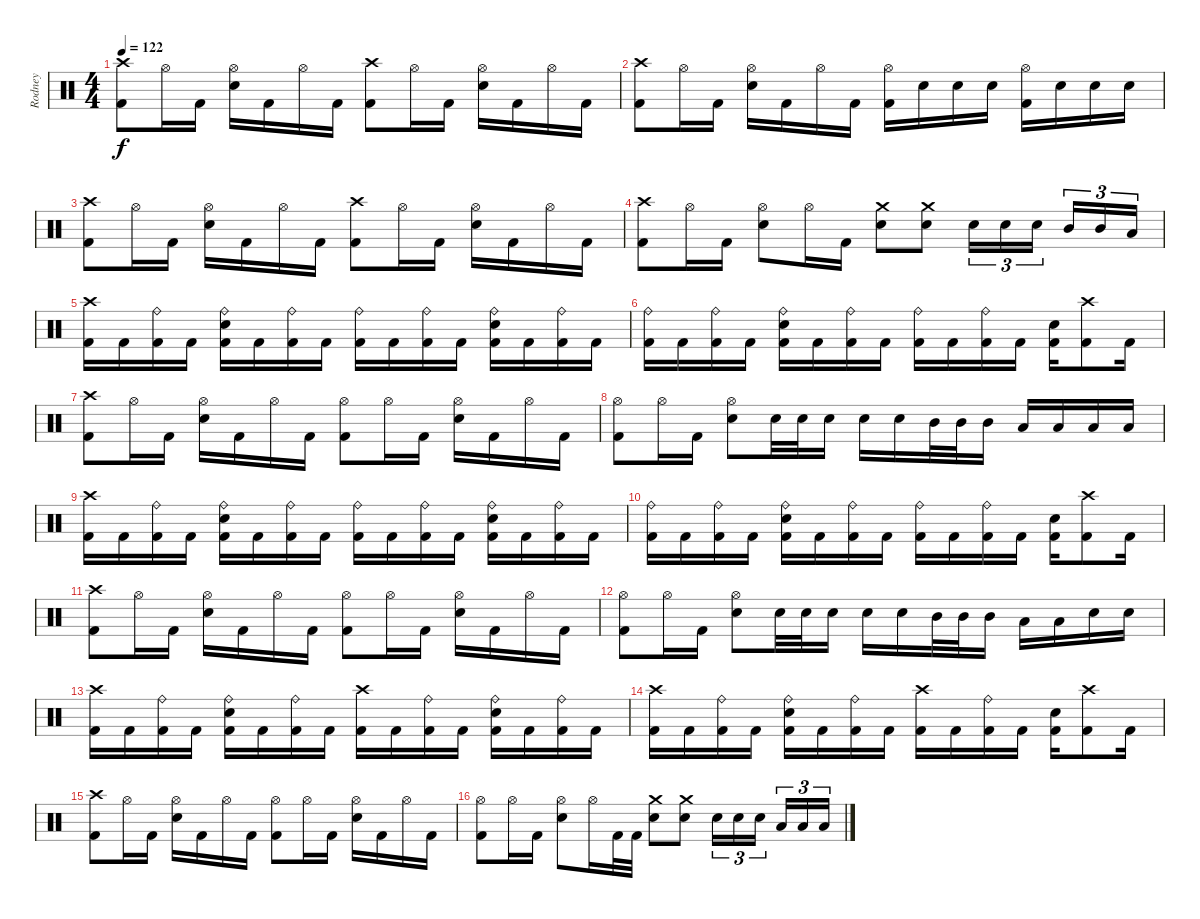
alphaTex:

\track ("Rodney" "Rodney") {instrument percussion}
\staff {score}
\articulation defaults
\ts (4 4)
\tempo 122
\clef neutral
\ks c
("Crash high (hit)" "Kick (hit) 2").8{dy f} "Hi-Hat (open)".16 "Kick (hit) 2".16 ("Hi-Hat (open)" "Snare (hit) 2").16 "Kick (hit) 2".16 "Hi-Hat (open)".16 "Kick (hit) 2".16 ("Crash high (hit)" "Kick (hit) 2").8 "Hi-Hat (open)".16 "Kick (hit) 2".16 ("Hi-Hat (open)" "Snare (hit) 2").16 "Kick (hit) 2".16 "Hi-Hat (open)".16 "Kick (hit) 2".16 |
("Crash high (hit)" "Kick (hit) 2").8 "Hi-Hat (open)".16 "Kick (hit) 2".16 ("Hi-Hat (open)" "Snare (hit) 2").16 "Kick (hit) 2".16 "Hi-Hat (open)".16 "Kick (hit) 2".16 ("Hi-Hat (open)" "Kick (hit) 2").16 "Snare (hit) 2".16 "Snare (hit) 2".16 "Snare (hit) 2".16 ("Hi-Hat (open)" "Kick (hit) 2").16 "Snare (hit) 2".16 "Snare (hit) 2".16 "Snare (hit) 2".16 |
("Crash high (hit)" "Kick (hit) 2").8 "Hi-Hat (open)".16 "Kick (hit) 2".16 ("Hi-Hat (open)" "Snare (hit) 2").16 "Kick (hit) 2".16 "Hi-Hat (open)".16 "Kick (hit) 2".16 ("Crash high (hit)" "Kick (hit) 2").8 "Hi-Hat (open)".16 "Kick (hit) 2".16 ("Hi-Hat (open)" "Snare (hit) 2").16 "Kick (hit) 2".16 "Hi-Hat (open)".16 "Kick (hit) 2".16 |
("Crash high (hit)" "Kick (hit) 2").8 "Hi-Hat (open)".16 "Kick (hit) 2".16 ("Hi-Hat (open)" "Snare (hit) 2").8 "Hi-Hat (open)".16 "Kick (hit) 2".16 ("Crash medium (hit)" "Snare (hit) 2").8 ("Crash medium (hit)" "Snare (hit) 2").8 "Snare (hit) 2".16{tu (3 2)} "Snare (hit) 2".16{tu (3 2)} "Snare (hit) 2".16{tu (3 2)} "Mid Tom (hit)".16{tu (3 2)} "Mid Tom (hit)".16{tu (3 2)} "Low Tom (hit)".16{tu (3 2)} |
("Crash high (hit)" "Kick (hit) 2").16 "Kick (hit) 2".16 ("Ride (bell)" "Kick (hit) 2").16 "Kick (hit) 2".16 ("Ride (bell)" "Snare (hit) 2" "Kick (hit) 2").16 "Kick (hit) 2".16 ("Ride (bell)" "Kick (hit) 2").16 "Kick (hit) 2".16 ("Ride (bell)" "Kick (hit) 2").16 "Kick (hit) 2".16 ("Ride (bell)" "Kick (hit) 2").16 "Kick (hit) 2".16 ("Ride (bell)" "Snare (hit) 2" "Kick (hit) 2").16 "Kick (hit) 2".16 ("Ride (bell)" "Kick (hit) 2").16 "Kick (hit) 2".16 |
("Ride (bell)" "Kick (hit) 2").16 "Kick (hit) 2".16 ("Ride (bell)" "Kick (hit) 2").16 "Kick (hit) 2".16 ("Ride (bell)" "Snare (hit) 2" "Kick (hit) 2").16 "Kick (hit) 2".16 ("Ride (bell)" "Kick (hit) 2").16 "Kick (hit) 2".16 ("Ride (bell)" "Kick (hit) 2").16 "Kick (hit) 2".16 ("Ride (bell)" "Kick (hit) 2").16 "Kick (hit) 2".16 ("Snare (hit) 2" "Kick (hit) 2").16 ("Crash high (hit)" "Kick (hit) 2").8 "Kick (hit) 2".16 |
("Crash high (hit)" "Kick (hit) 2").8 "Hi-Hat (open)".16 "Kick (hit) 2".16 ("Hi-Hat (open)" "Snare (hit) 2").16 "Kick (hit) 2".16 "Hi-Hat (open)".16 "Kick (hit) 2".16 ("Hi-Hat (open)" "Kick (hit) 2").8 "Hi-Hat (open)".16 "Kick (hit) 2".16 ("Hi-Hat (open)" "Snare (hit) 2").16 "Kick (hit) 2".16 "Hi-Hat (open)".16 "Kick (hit) 2".16 |
("Hi-Hat (open)" "Kick (hit) 2").8 "Hi-Hat (open)".16 "Kick (hit) 2".16 ("Hi-Hat (open)" "Snare (hit) 2").8 "Snare (hit) 2".32 "Snare (hit) 2".32 "Snare (hit) 2".16 "Snare (hit) 2".16 "Snare (hit) 2".16 "Mid Tom (hit)".32 "Mid Tom (hit)".32 "Mid Tom (hit)".16 "Low Tom (hit)".16 "Low Tom (hit)".16 "Low Tom (hit)".16 "Low Tom (hit)".16 |
("Crash high (hit)" "Kick (hit) 2").16 "Kick (hit) 2".16 ("Ride (bell)" "Kick (hit) 2").16 "Kick (hit) 2".16 ("Ride (bell)" "Snare (hit) 2" "Kick (hit) 2").16 "Kick (hit) 2".16 ("Ride (bell)" "Kick (hit) 2").16 "Kick (hit) 2".16 ("Ride (bell)" "Kick (hit) 2").16 "Kick (hit) 2".16 ("Ride (bell)" "Kick (hit) 2").16 "Kick (hit) 2".16 ("Ride (bell)" "Snare (hit) 2" "Kick (hit) 2").16 "Kick (hit) 2".16 ("Ride (bell)" "Kick (hit) 2").16 "Kick (hit) 2".16 |
("Ride (bell)" "Kick (hit) 2").16 "Kick (hit) 2".16 ("Ride (bell)" "Kick (hit) 2").16 "Kick (hit) 2".16 ("Ride (bell)" "Snare (hit) 2" "Kick (hit) 2").16 "Kick (hit) 2".16 ("Ride (bell)" "Kick (hit) 2").16 "Kick (hit) 2".16 ("Ride (bell)" "Kick (hit) 2").16 "Kick (hit) 2".16 ("Ride (bell)" "Kick (hit) 2").16 "Kick (hit) 2".16 ("Snare (hit) 2" "Kick (hit) 2").16 ("Crash high (hit)" "Kick (hit) 2").8 "Kick (hit) 2".16 |
("Crash high (hit)" "Kick (hit) 2").8 "Hi-Hat (open)".16 "Kick (hit) 2".16 ("Hi-Hat (open)" "Snare (hit) 2").16 "Kick (hit) 2".16 "Hi-Hat (open)".16 "Kick (hit) 2".16 ("Hi-Hat (open)" "Kick (hit) 2").8 "Hi-Hat (open)".16 "Kick (hit) 2".16 ("Hi-Hat (open)" "Snare (hit) 2").16 "Kick (hit) 2".16 "Hi-Hat (open)".16 "Kick (hit) 2".16 |
("Hi-Hat (open)" "Kick (hit) 2").8 "Hi-Hat (open)".16 "Kick (hit) 2".16 ("Hi-Hat (open)" "Snare (hit) 2").8 "Snare (hit) 2".32 "Snare (hit) 2".32 "Snare (hit) 2".16 "Snare (hit) 2".16 "Snare (hit) 2".16 "Mid Tom (hit)".32 "Mid Tom (hit)".32 "Mid Tom (hit)".16 "Low Tom (hit)".16 "Low Tom (hit)".16 "Snare (hit) 2".16 "Snare (hit) 2".16 |
("Crash high (hit)" "Kick (hit) 2").16 "Kick (hit) 2".16 ("Ride (bell)" "Kick (hit) 2").16 "Kick (hit) 2".16 ("Ride (bell)" "Snare (hit) 2" "Kick (hit) 2").16 "Kick (hit) 2".16 ("Ride (bell)" "Kick (hit) 2").16 "Kick (hit) 2".16 ("Crash high (hit)" "Kick (hit) 2").16 "Kick (hit) 2".16 ("Ride (bell)" "Kick (hit) 2").16 "Kick (hit) 2".16 ("Ride (bell)" "Snare (hit) 2" "Kick (hit) 2").16 "Kick (hit) 2".16 ("Ride (bell)" "Kick (hit) 2").16 "Kick (hit) 2".16 |
("Crash high (hit)" "Kick (hit) 2").16 "Kick (hit) 2".16 ("Ride (bell)" "Kick (hit) 2").16 "Kick (hit) 2".16 ("Ride (bell)" "Snare (hit) 2" "Kick (hit) 2").16 "Kick (hit) 2".16 ("Ride (bell)" "Kick (hit) 2").16 "Kick (hit) 2".16 ("Crash high (hit)" "Kick (hit) 2").16 "Kick (hit) 2".16 ("Ride (bell)" "Kick (hit) 2").16 "Kick (hit) 2".16 ("Snare (hit) 2" "Kick (hit) 2").16 ("Crash high (hit)" "Kick (hit) 2").8 "Kick (hit) 2".16 |
("Crash high (hit)" "Kick (hit) 2").8 "Hi-Hat (open)".16 "Kick (hit) 2".16 ("Hi-Hat (open)" "Snare (hit) 2").16 "Kick (hit) 2".16 "Hi-Hat (open)".16 "Kick (hit) 2".16 ("Hi-Hat (open)" "Kick (hit) 2").8 "Hi-Hat (open)".16 "Kick (hit) 2".16 ("Hi-Hat (open)" "Snare (hit) 2").16 "Kick (hit) 2".16 "Hi-Hat (open)".16 "Kick (hit) 2".16 |
("Hi-Hat (open)" "Kick (hit) 2").8 "Hi-Hat (open)".16 "Kick (hit) 2".16 ("Hi-Hat (open)" "Snare (hit) 2").8 "Hi-Hat (open)".16 "Kick (hit) 2".32 "Kick (hit) 2".32 ("Crash medium (hit)" "Snare (hit) 2").8 ("Crash medium (hit)" "Snare (hit) 2").8 "Snare (hit) 2".16{tu (3 2)} "Snare (hit) 2".16{tu (3 2)} "Snare (hit) 2".16{tu (3 2)} "Low Tom (hit)".16{tu (3 2)} "Low Tom (hit)".16{tu (3 2)} "Low Tom (hit)".16{tu (3 2)}
